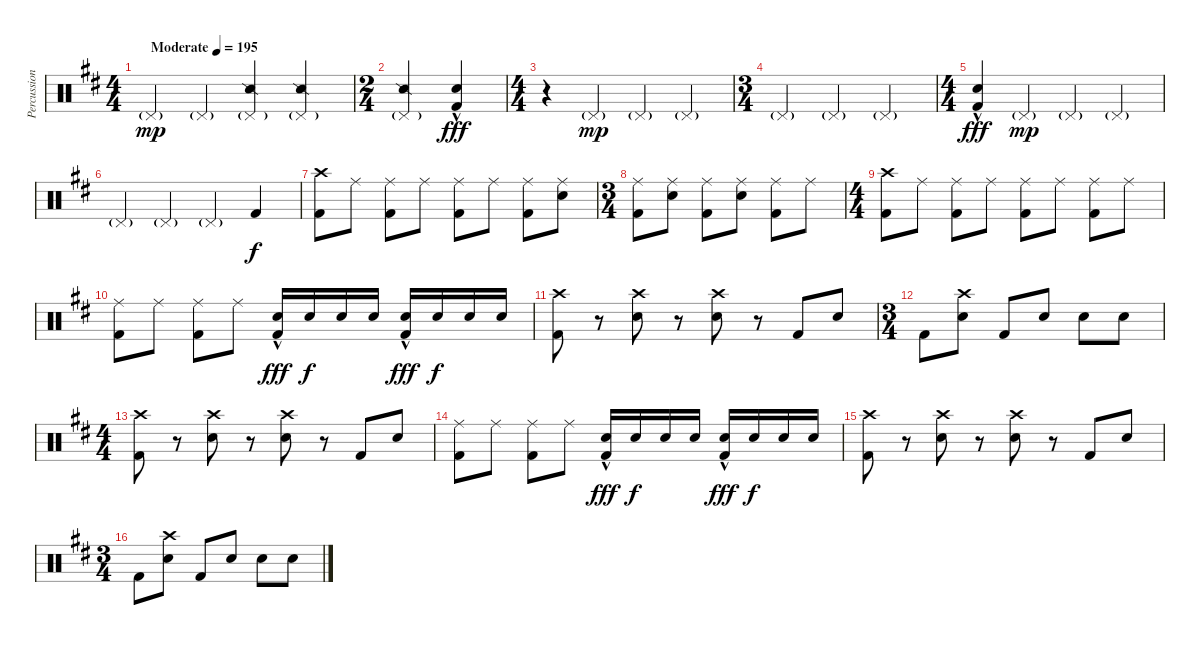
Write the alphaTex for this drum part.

\track ("Percussion" "Percussion") {instrument percussion}
\staff {score}
\articulation defaults
\ts (4 4)
\tempo (195 "Moderate")
\clef neutral
\ks d "Pedal Hi-Hat (hit)"{g}.4{dy mp} "Pedal Hi-Hat (hit)"{g}.4
("Pedal Hi-Hat (hit)"{g} "Snare (side stick) 2").4 ("Pedal Hi-Hat (hit)"{g} "Snare (side stick) 2").4 |
\ts (2 4)
("Pedal Hi-Hat (hit)"{g} "Snare (side stick) 2").4 ("Electric Snare (hit)"{hac} "Kick (hit) 2"{hac}).4{dy fff} |
\ts (4 4)
r.4 "Pedal Hi-Hat (hit)"{g}.4{dy mp} "Pedal Hi-Hat (hit)"{g}.4 "Pedal Hi-Hat (hit)"{g}.4 |
\ts (3 4)
"Pedal Hi-Hat (hit)"{g}.4 "Pedal Hi-Hat (hit)"{g}.4 "Pedal Hi-Hat (hit)"{g}.4 |
\ts (4 4)
("Electric Snare (hit)"{hac} "Kick (hit) 2"{hac}).4{dy fff} "Pedal Hi-Hat (hit)"{g}.4{dy mp} "Pedal Hi-Hat (hit)"{g}.4 "Pedal Hi-Hat (hit)"{g}.4 |
"Pedal Hi-Hat (hit)"{g}.4 "Pedal Hi-Hat (hit)"{g}.4 "Pedal Hi-Hat (hit)"{g}.4 "Kick (hit) 2".4{dy f} |
("Crash high (hit)" "Kick (hit) 2").8 "Ride (middle)".8 ("Ride (middle)" "Kick (hit) 2").8 "Ride (middle)".8 ("Ride (middle)" "Kick (hit) 2").8 "Ride (middle)".8 ("Ride (middle)" "Kick (hit) 2").8 ("Ride (middle)" "Electric Snare (hit)").8 |
\ts (3 4)
("Ride (middle)" "Kick (hit) 2").8 ("Ride (middle)" "Electric Snare (hit)").8 ("Ride (middle)" "Kick (hit) 2").8 ("Ride (middle)" "Electric Snare (hit)").8 ("Ride (middle)" "Kick (hit) 2").8 "Ride (middle)".8 |
\ts (4 4)
("Crash high (hit)" "Kick (hit) 2").8 "Ride (middle)".8 ("Ride (middle)" "Kick (hit) 2").8 "Ride (middle)".8 ("Ride (middle)" "Kick (hit) 2").8 "Ride (middle)".8 ("Ride (middle)" "Kick (hit) 2").8 "Ride (middle)".8 |
("Ride (middle)" "Kick (hit) 2").8 "Ride (middle)".8 ("Ride (middle)" "Kick (hit) 2").8 "Ride (middle)".8 ("Electric Snare (hit)"{hac} "Kick (hit) 2").16{dy fff} "Electric Snare (hit)".16{dy f} "Electric Snare (hit)".16 "Electric Snare (hit)".16 ("Electric Snare (hit)"{hac} "Kick (hit) 2").16{dy fff} "Electric Snare (hit)".16{dy f} "Electric Snare (hit)".16 "Electric Snare (hit)".16 |
("Crash high (hit)" "Kick (hit) 2").8 r.8 ("Crash high (hit)" "Electric Snare (hit)").8 r.8 ("Crash high (hit)" "Electric Snare (hit)").8 r.8 "Kick (hit) 2".8 "Electric Snare (hit)".8 |
\ts (3 4)
"Kick (hit) 2".8 ("Crash high (hit)" "Electric Snare (hit)").8 "Kick (hit) 2".8 "Electric Snare (hit)".8 "Electric Snare (hit)".8 "Electric Snare (hit)".8 |
\ts (4 4)
("Crash high (hit)" "Kick (hit) 2").8 r.8 ("Crash high (hit)" "Electric Snare (hit)").8 r.8 ("Crash high (hit)" "Electric Snare (hit)").8 r.8 "Kick (hit) 2".8 "Electric Snare (hit)".8 |
("Ride (middle)" "Kick (hit) 2").8 "Ride (middle)".8 ("Ride (middle)" "Kick (hit) 2").8 "Ride (middle)".8 ("Electric Snare (hit)"{hac} "Kick (hit) 2").16{dy fff} "Electric Snare (hit)".16{dy f} "Electric Snare (hit)".16 "Electric Snare (hit)".16 ("Electric Snare (hit)"{hac} "Kick (hit) 2").16{dy fff} "Electric Snare (hit)".16{dy f} "Electric Snare (hit)".16 "Electric Snare (hit)".16 |
("Crash high (hit)" "Kick (hit) 2").8 r.8 ("Crash high (hit)" "Electric Snare (hit)").8 r.8 ("Crash high (hit)" "Electric Snare (hit)").8 r.8 "Kick (hit) 2".8 "Electric Snare (hit)".8 |
\ts (3 4)
"Kick (hit) 2".8 ("Crash high (hit)" "Electric Snare (hit)").8 "Kick (hit) 2".8 "Electric Snare (hit)".8 "Electric Snare (hit)".8 "Electric Snare (hit)".8
